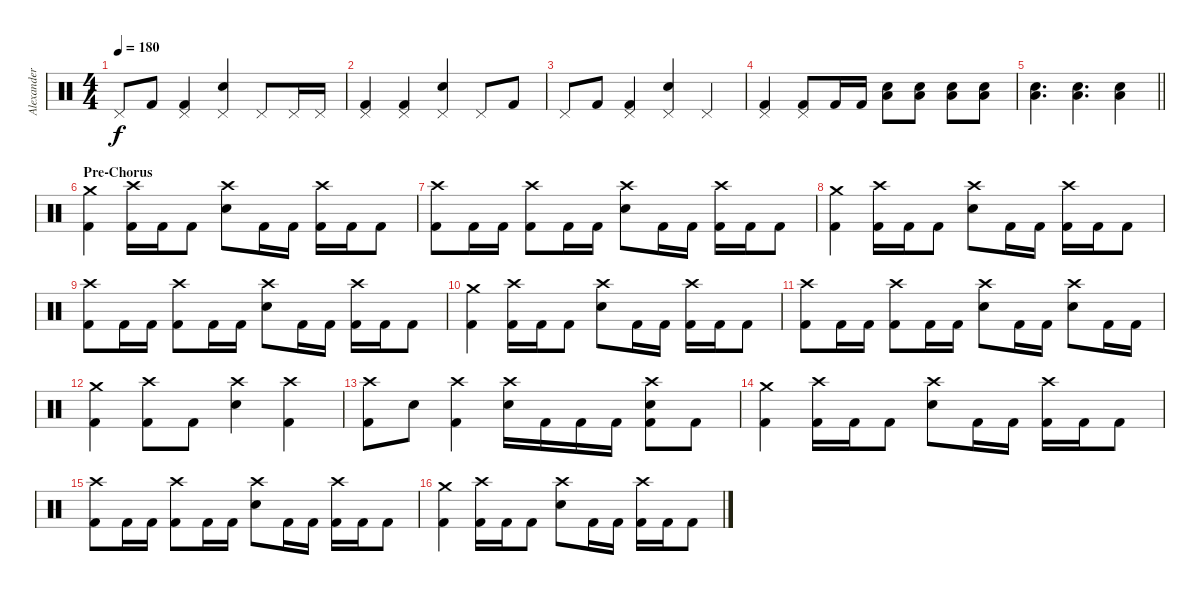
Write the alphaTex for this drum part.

\track ("Alexander Sveningsson" "Alexander ") {instrument percussion}
\staff {score}
\articulation defaults
\ts (4 4)
\tempo 180
\clef neutral
\ks c "Pedal Hi-Hat (hit)".8{dy f} "Kick (hit) 2".8
("Pedal Hi-Hat (hit)" "Kick (hit) 2").4 ("Pedal Hi-Hat (hit)" "Electric Snare (hit)").4 "Pedal Hi-Hat (hit)".8 "Pedal Hi-Hat (hit)".16 "Pedal Hi-Hat (hit)".16 |
("Pedal Hi-Hat (hit)" "Kick (hit) 2").4 ("Pedal Hi-Hat (hit)" "Kick (hit) 2").4 ("Pedal Hi-Hat (hit)" "Electric Snare (hit)").4 "Pedal Hi-Hat (hit)".8 "Kick (hit) 2".8 |
"Pedal Hi-Hat (hit)".8 "Kick (hit) 2".8 ("Pedal Hi-Hat (hit)" "Kick (hit) 2").4 ("Pedal Hi-Hat (hit)" "Electric Snare (hit)").4 "Pedal Hi-Hat (hit)".4 |
("Pedal Hi-Hat (hit)" "Kick (hit) 2").4 ("Pedal Hi-Hat (hit)" "Kick (hit) 2").8 "Kick (hit) 2".16 "Kick (hit) 2".16 ("Low Floor Tom (hit)" "Electric Snare (hit)").8 ("Low Floor Tom (hit)" "Electric Snare (hit)").8 ("Low Floor Tom (hit)" "Electric Snare (hit)").8 ("Low Floor Tom (hit)" "Electric Snare (hit)").8 |
\barLineRight lightlight
("Low Floor Tom (hit)" "Electric Snare (hit)").4{d} ("Low Floor Tom (hit)" "Electric Snare (hit)").4{d} ("Low Floor Tom (hit)" "Electric Snare (hit)").4 |
\section ("" "Pre-Chorus")
("Crash medium (hit)" "Kick (hit) 2").4 ("Crash high (hit)" "Kick (hit) 2").16 "Kick (hit) 2".16 "Kick (hit) 2".8 ("Crash high (hit)" "Electric Snare (hit)").8 "Kick (hit) 2".16 "Kick (hit) 2".16 ("Crash high (hit)" "Kick (hit) 2").16 "Kick (hit) 2".16 "Kick (hit) 2".8 |
("Crash high (hit)" "Kick (hit) 2").8 "Kick (hit) 2".16 "Kick (hit) 2".16 ("Crash high (hit)" "Kick (hit) 2").8 "Kick (hit) 2".16 "Kick (hit) 2".16 ("Crash high (hit)" "Electric Snare (hit)").8 "Kick (hit) 2".16 "Kick (hit) 2".16 ("Crash high (hit)" "Kick (hit) 2").16 "Kick (hit) 2".16 "Kick (hit) 2".8 |
("Crash medium (hit)" "Kick (hit) 2").4 ("Crash high (hit)" "Kick (hit) 2").16 "Kick (hit) 2".16 "Kick (hit) 2".8 ("Crash high (hit)" "Electric Snare (hit)").8 "Kick (hit) 2".16 "Kick (hit) 2".16 ("Crash high (hit)" "Kick (hit) 2").16 "Kick (hit) 2".16 "Kick (hit) 2".8 |
("Crash high (hit)" "Kick (hit) 2").8 "Kick (hit) 2".16 "Kick (hit) 2".16 ("Crash high (hit)" "Kick (hit) 2").8 "Kick (hit) 2".16 "Kick (hit) 2".16 ("Crash high (hit)" "Electric Snare (hit)").8 "Kick (hit) 2".16 "Kick (hit) 2".16 ("Crash high (hit)" "Kick (hit) 2").16 "Kick (hit) 2".16 "Kick (hit) 2".8 |
("Crash medium (hit)" "Kick (hit) 2").4 ("Crash high (hit)" "Kick (hit) 2").16 "Kick (hit) 2".16 "Kick (hit) 2".8 ("Crash high (hit)" "Electric Snare (hit)").8 "Kick (hit) 2".16 "Kick (hit) 2".16 ("Crash high (hit)" "Kick (hit) 2").16 "Kick (hit) 2".16 "Kick (hit) 2".8 |
("Crash high (hit)" "Kick (hit) 2").8 "Kick (hit) 2".16 "Kick (hit) 2".16 ("Crash high (hit)" "Kick (hit) 2").8 "Kick (hit) 2".16 "Kick (hit) 2".16 ("Crash high (hit)" "Electric Snare (hit)").8 "Kick (hit) 2".16 "Kick (hit) 2".16 ("Crash high (hit)" "Electric Snare (hit)").8 "Kick (hit) 2".16 "Kick (hit) 2".16 |
("Crash medium (hit)" "Kick (hit) 2").4 ("Crash high (hit)" "Kick (hit) 2").8 "Kick (hit) 2".8 ("Crash high (hit)" "Electric Snare (hit)").4 ("Crash high (hit)" "Kick (hit) 2").4 |
("Crash high (hit)" "Kick (hit) 2").8 "Electric Snare (hit)".8 ("Crash high (hit)" "Kick (hit) 2").4 ("Crash high (hit)" "Electric Snare (hit)").16 "Kick (hit) 2".16 "Kick (hit) 2".16 "Kick (hit) 2".16 ("Crash high (hit)" "Electric Snare (hit)" "Kick (hit) 2").8 "Kick (hit) 2".8 |
("Crash medium (hit)" "Kick (hit) 2").4 ("Crash high (hit)" "Kick (hit) 2").16 "Kick (hit) 2".16 "Kick (hit) 2".8 ("Crash high (hit)" "Electric Snare (hit)").8 "Kick (hit) 2".16 "Kick (hit) 2".16 ("Crash high (hit)" "Kick (hit) 2").16 "Kick (hit) 2".16 "Kick (hit) 2".8 |
("Crash high (hit)" "Kick (hit) 2").8 "Kick (hit) 2".16 "Kick (hit) 2".16 ("Crash high (hit)" "Kick (hit) 2").8 "Kick (hit) 2".16 "Kick (hit) 2".16 ("Crash high (hit)" "Electric Snare (hit)").8 "Kick (hit) 2".16 "Kick (hit) 2".16 ("Crash high (hit)" "Kick (hit) 2").16 "Kick (hit) 2".16 "Kick (hit) 2".8 |
("Crash medium (hit)" "Kick (hit) 2").4 ("Crash high (hit)" "Kick (hit) 2").16 "Kick (hit) 2".16 "Kick (hit) 2".8 ("Crash high (hit)" "Electric Snare (hit)").8 "Kick (hit) 2".16 "Kick (hit) 2".16 ("Crash high (hit)" "Kick (hit) 2").16 "Kick (hit) 2".16 "Kick (hit) 2".8
